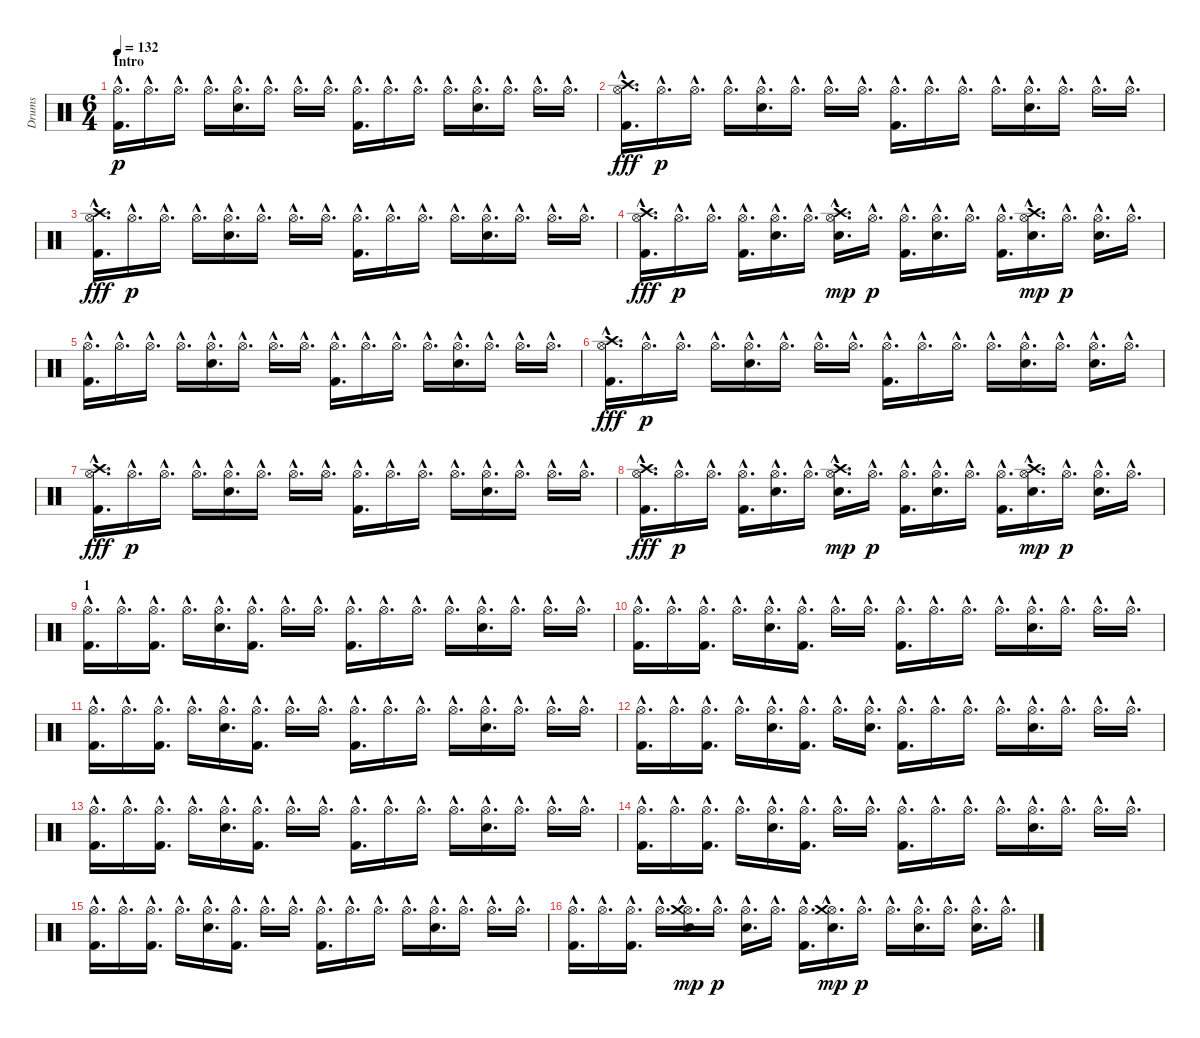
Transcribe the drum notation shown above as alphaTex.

\track ("Drums" "Drums") {instrument percussion}
\staff {score}
\articulation defaults
\ts (6 4)
\section ("" "Intro")
\tempo 132
\clef neutral
\ks c
("Kick (hit) 2"{hac} "Hi-Hat (open)"{hac}).16{d dy p} "Hi-Hat (open)"{hac}.16{d} "Hi-Hat (open)"{hac}.16{d} "Hi-Hat (open)"{hac}.16{d} ("Electric Snare (hit)"{hac} "Hi-Hat (open)"{hac}).16{d} "Hi-Hat (open)"{hac}.16{d} "Hi-Hat (open)"{hac}.16{d} "Hi-Hat (open)"{hac}.16{d} ("Kick (hit) 2"{hac} "Hi-Hat (open)"{hac}).16{d} "Hi-Hat (open)"{hac}.16{d} "Hi-Hat (open)"{hac}.16{d} "Hi-Hat (open)"{hac}.16{d} ("Electric Snare (hit)"{hac} "Hi-Hat (open)"{hac}).16{d} "Hi-Hat (open)"{hac}.16{d} "Hi-Hat (open)"{hac}.16{d} "Hi-Hat (open)"{hac}.16{d} |
("Crash high (hit)"{hac} "Hi-Hat (open)"{hac} "Kick (hit) 2"{hac}).16{d dy fff} "Hi-Hat (open)"{hac}.16{d dy p} "Hi-Hat (open)"{hac}.16{d} "Hi-Hat (open)"{hac}.16{d} ("Electric Snare (hit)"{hac} "Hi-Hat (open)"{hac}).16{d} "Hi-Hat (open)"{hac}.16{d} "Hi-Hat (open)"{hac}.16{d} "Hi-Hat (open)"{hac}.16{d} ("Kick (hit) 2"{hac} "Hi-Hat (open)"{hac}).16{d} "Hi-Hat (open)"{hac}.16{d} "Hi-Hat (open)"{hac}.16{d} "Hi-Hat (open)"{hac}.16{d} ("Electric Snare (hit)"{hac} "Hi-Hat (open)"{hac}).16{d} "Hi-Hat (open)"{hac}.16{d} "Hi-Hat (open)"{hac}.16{d} "Hi-Hat (open)"{hac}.16{d} |
("Crash high (hit)"{hac} "Hi-Hat (open)"{hac} "Kick (hit) 2"{hac}).16{d dy fff} "Hi-Hat (open)"{hac}.16{d dy p} "Hi-Hat (open)"{hac}.16{d} "Hi-Hat (open)"{hac}.16{d} ("Electric Snare (hit)"{hac} "Hi-Hat (open)"{hac}).16{d} "Hi-Hat (open)"{hac}.16{d} "Hi-Hat (open)"{hac}.16{d} "Hi-Hat (open)"{hac}.16{d} ("Kick (hit) 2"{hac} "Hi-Hat (open)"{hac}).16{d} "Hi-Hat (open)"{hac}.16{d} "Hi-Hat (open)"{hac}.16{d} "Hi-Hat (open)"{hac}.16{d} ("Electric Snare (hit)"{hac} "Hi-Hat (open)"{hac}).16{d} "Hi-Hat (open)"{hac}.16{d} "Hi-Hat (open)"{hac}.16{d} "Hi-Hat (open)"{hac}.16{d} |
("Crash high (hit)"{hac} "Hi-Hat (open)"{hac} "Kick (hit) 2"{hac}).16{d dy fff} "Hi-Hat (open)"{hac}.16{d dy p} "Hi-Hat (open)"{hac}.16{d} ("Kick (hit) 2"{hac} "Hi-Hat (open)"{hac}).16{d} ("Electric Snare (hit)"{hac} "Hi-Hat (open)"{hac}).16{d} "Hi-Hat (open)"{hac}.16{d} ("Electric Snare (hit)"{hac} "Hi-Hat (open)"{hac} "Crash high (hit)"{hac}).16{d dy mp} "Hi-Hat (open)"{hac}.16{d dy p} ("Kick (hit) 2"{hac} "Hi-Hat (open)"{hac}).16{d} ("Electric Snare (hit)"{hac} "Hi-Hat (open)"{hac}).16{d} "Hi-Hat (open)"{hac}.16{d} ("Kick (hit) 2"{hac} "Hi-Hat (open)"{hac}).16{d} ("Electric Snare (hit)"{hac} "Hi-Hat (open)"{hac} "Crash high (hit)"{hac}).16{d dy mp} "Hi-Hat (open)"{hac}.16{d dy p} ("Electric Snare (hit)"{hac} "Hi-Hat (open)"{hac}).16{d} "Hi-Hat (open)"{hac}.16{d} |
("Kick (hit) 2"{hac} "Hi-Hat (open)"{hac}).16{d} "Hi-Hat (open)"{hac}.16{d} "Hi-Hat (open)"{hac}.16{d} "Hi-Hat (open)"{hac}.16{d} ("Electric Snare (hit)"{hac} "Hi-Hat (open)"{hac}).16{d} "Hi-Hat (open)"{hac}.16{d} "Hi-Hat (open)"{hac}.16{d} "Hi-Hat (open)"{hac}.16{d} ("Kick (hit) 2"{hac} "Hi-Hat (open)"{hac}).16{d} "Hi-Hat (open)"{hac}.16{d} "Hi-Hat (open)"{hac}.16{d} "Hi-Hat (open)"{hac}.16{d} ("Electric Snare (hit)"{hac} "Hi-Hat (open)"{hac}).16{d} "Hi-Hat (open)"{hac}.16{d} "Hi-Hat (open)"{hac}.16{d} "Hi-Hat (open)"{hac}.16{d} |
("Crash high (hit)"{hac} "Hi-Hat (open)"{hac} "Kick (hit) 2"{hac}).16{d dy fff} "Hi-Hat (open)"{hac}.16{d dy p} "Hi-Hat (open)"{hac}.16{d} "Hi-Hat (open)"{hac}.16{d} ("Electric Snare (hit)"{hac} "Hi-Hat (open)"{hac}).16{d} "Hi-Hat (open)"{hac}.16{d} "Hi-Hat (open)"{hac}.16{d} "Hi-Hat (open)"{hac}.16{d} ("Kick (hit) 2"{hac} "Hi-Hat (open)"{hac}).16{d} "Hi-Hat (open)"{hac}.16{d} "Hi-Hat (open)"{hac}.16{d} "Hi-Hat (open)"{hac}.16{d} ("Electric Snare (hit)"{hac} "Hi-Hat (open)"{hac}).16{d} "Hi-Hat (open)"{hac}.16{d} ("Electric Snare (hit)"{hac} "Hi-Hat (open)"{hac}).16{d} "Hi-Hat (open)"{hac}.16{d} |
("Crash high (hit)"{hac} "Hi-Hat (open)"{hac} "Kick (hit) 2"{hac}).16{d dy fff} "Hi-Hat (open)"{hac}.16{d dy p} "Hi-Hat (open)"{hac}.16{d} "Hi-Hat (open)"{hac}.16{d} ("Electric Snare (hit)"{hac} "Hi-Hat (open)"{hac}).16{d} "Hi-Hat (open)"{hac}.16{d} "Hi-Hat (open)"{hac}.16{d} "Hi-Hat (open)"{hac}.16{d} ("Kick (hit) 2"{hac} "Hi-Hat (open)"{hac}).16{d} "Hi-Hat (open)"{hac}.16{d} "Hi-Hat (open)"{hac}.16{d} "Hi-Hat (open)"{hac}.16{d} ("Electric Snare (hit)"{hac} "Hi-Hat (open)"{hac}).16{d} "Hi-Hat (open)"{hac}.16{d} "Hi-Hat (open)"{hac}.16{d} "Hi-Hat (open)"{hac}.16{d} |
("Crash high (hit)"{hac} "Hi-Hat (open)"{hac} "Kick (hit) 2"{hac}).16{d dy fff} "Hi-Hat (open)"{hac}.16{d dy p} "Hi-Hat (open)"{hac}.16{d} ("Kick (hit) 2"{hac} "Hi-Hat (open)"{hac}).16{d} ("Electric Snare (hit)"{hac} "Hi-Hat (open)"{hac}).16{d} "Hi-Hat (open)"{hac}.16{d} ("Electric Snare (hit)"{hac} "Hi-Hat (open)"{hac} "Crash high (hit)"{hac}).16{d dy mp} "Hi-Hat (open)"{hac}.16{d dy p} ("Kick (hit) 2"{hac} "Hi-Hat (open)"{hac}).16{d} ("Electric Snare (hit)"{hac} "Hi-Hat (open)"{hac}).16{d} "Hi-Hat (open)"{hac}.16{d} ("Kick (hit) 2"{hac} "Hi-Hat (open)"{hac}).16{d} ("Electric Snare (hit)"{hac} "Hi-Hat (open)"{hac} "Crash high (hit)"{hac}).16{d dy mp} "Hi-Hat (open)"{hac}.16{d dy p} ("Electric Snare (hit)"{hac} "Hi-Hat (open)"{hac}).16{d} "Hi-Hat (open)"{hac}.16{d} |
\section ("" "1")
("Hi-Hat (open)"{hac} "Kick (hit) 2"{hac}).16{d} "Hi-Hat (open)"{hac}.16{d} ("Hi-Hat (open)"{hac} "Kick (hit) 2"{hac}).16{d} "Hi-Hat (open)"{hac}.16{d} ("Hi-Hat (open)"{hac} "Electric Snare (hit)"{hac}).16{d} ("Hi-Hat (open)"{hac} "Kick (hit) 2"{hac}).16{d} "Hi-Hat (open)"{hac}.16{d} "Hi-Hat (open)"{hac}.16{d} ("Hi-Hat (open)"{hac} "Kick (hit) 2"{hac}).16{d} "Hi-Hat (open)"{hac}.16{d} "Hi-Hat (open)"{hac}.16{d} "Hi-Hat (open)"{hac}.16{d} ("Hi-Hat (open)"{hac} "Electric Snare (hit)"{hac}).16{d} "Hi-Hat (open)"{hac}.16{d} "Hi-Hat (open)"{hac}.16{d} "Hi-Hat (open)"{hac}.16{d} |
("Hi-Hat (open)"{hac} "Kick (hit) 2"{hac}).16{d} "Hi-Hat (open)"{hac}.16{d} ("Hi-Hat (open)"{hac} "Kick (hit) 2"{hac}).16{d} "Hi-Hat (open)"{hac}.16{d} ("Hi-Hat (open)"{hac} "Electric Snare (hit)"{hac}).16{d} ("Hi-Hat (open)"{hac} "Kick (hit) 2"{hac}).16{d} "Hi-Hat (open)"{hac}.16{d} "Hi-Hat (open)"{hac}.16{d} ("Hi-Hat (open)"{hac} "Kick (hit) 2"{hac}).16{d} "Hi-Hat (open)"{hac}.16{d} "Hi-Hat (open)"{hac}.16{d} "Hi-Hat (open)"{hac}.16{d} ("Hi-Hat (open)"{hac} "Electric Snare (hit)"{hac}).16{d} "Hi-Hat (open)"{hac}.16{d} "Hi-Hat (open)"{hac}.16{d} "Hi-Hat (open)"{hac}.16{d} |
("Hi-Hat (open)"{hac} "Kick (hit) 2"{hac}).16{d} "Hi-Hat (open)"{hac}.16{d} ("Hi-Hat (open)"{hac} "Kick (hit) 2"{hac}).16{d} "Hi-Hat (open)"{hac}.16{d} ("Hi-Hat (open)"{hac} "Electric Snare (hit)"{hac}).16{d} ("Hi-Hat (open)"{hac} "Kick (hit) 2"{hac}).16{d} "Hi-Hat (open)"{hac}.16{d} "Hi-Hat (open)"{hac}.16{d} ("Hi-Hat (open)"{hac} "Kick (hit) 2"{hac}).16{d} "Hi-Hat (open)"{hac}.16{d} "Hi-Hat (open)"{hac}.16{d} "Hi-Hat (open)"{hac}.16{d} ("Hi-Hat (open)"{hac} "Electric Snare (hit)"{hac}).16{d} "Hi-Hat (open)"{hac}.16{d} "Hi-Hat (open)"{hac}.16{d} "Hi-Hat (open)"{hac}.16{d} |
("Hi-Hat (open)"{hac} "Kick (hit) 2"{hac}).16{d} "Hi-Hat (open)"{hac}.16{d} ("Hi-Hat (open)"{hac} "Kick (hit) 2"{hac}).16{d} "Hi-Hat (open)"{hac}.16{d} ("Hi-Hat (open)"{hac} "Electric Snare (hit)"{hac}).16{d} ("Hi-Hat (open)"{hac} "Kick (hit) 2"{hac}).16{d} "Hi-Hat (open)"{hac}.16{d} ("Hi-Hat (open)"{hac} "Electric Snare (hit)"{hac}).16{d} ("Hi-Hat (open)"{hac} "Kick (hit) 2"{hac}).16{d} "Hi-Hat (open)"{hac}.16{d} "Hi-Hat (open)"{hac}.16{d} "Hi-Hat (open)"{hac}.16{d} ("Hi-Hat (open)"{hac} "Electric Snare (hit)"{hac}).16{d} "Hi-Hat (open)"{hac}.16{d} "Hi-Hat (open)"{hac}.16{d} "Hi-Hat (open)"{hac}.16{d} |
("Hi-Hat (open)"{hac} "Kick (hit) 2"{hac}).16{d} "Hi-Hat (open)"{hac}.16{d} ("Hi-Hat (open)"{hac} "Kick (hit) 2"{hac}).16{d} "Hi-Hat (open)"{hac}.16{d} ("Hi-Hat (open)"{hac} "Electric Snare (hit)"{hac}).16{d} ("Hi-Hat (open)"{hac} "Kick (hit) 2"{hac}).16{d} "Hi-Hat (open)"{hac}.16{d} "Hi-Hat (open)"{hac}.16{d} ("Hi-Hat (open)"{hac} "Kick (hit) 2"{hac}).16{d} "Hi-Hat (open)"{hac}.16{d} "Hi-Hat (open)"{hac}.16{d} "Hi-Hat (open)"{hac}.16{d} ("Hi-Hat (open)"{hac} "Electric Snare (hit)"{hac}).16{d} "Hi-Hat (open)"{hac}.16{d} "Hi-Hat (open)"{hac}.16{d} "Hi-Hat (open)"{hac}.16{d} |
("Hi-Hat (open)"{hac} "Kick (hit) 2"{hac}).16{d} "Hi-Hat (open)"{hac}.16{d} ("Hi-Hat (open)"{hac} "Kick (hit) 2"{hac}).16{d} "Hi-Hat (open)"{hac}.16{d} ("Hi-Hat (open)"{hac} "Electric Snare (hit)"{hac}).16{d} ("Hi-Hat (open)"{hac} "Kick (hit) 2"{hac}).16{d} "Hi-Hat (open)"{hac}.16{d} "Hi-Hat (open)"{hac}.16{d} ("Hi-Hat (open)"{hac} "Kick (hit) 2"{hac}).16{d} "Hi-Hat (open)"{hac}.16{d} "Hi-Hat (open)"{hac}.16{d} "Hi-Hat (open)"{hac}.16{d} ("Hi-Hat (open)"{hac} "Electric Snare (hit)"{hac}).16{d} "Hi-Hat (open)"{hac}.16{d} "Hi-Hat (open)"{hac}.16{d} "Hi-Hat (open)"{hac}.16{d} |
("Hi-Hat (open)"{hac} "Kick (hit) 2"{hac}).16{d} "Hi-Hat (open)"{hac}.16{d} ("Hi-Hat (open)"{hac} "Kick (hit) 2"{hac}).16{d} "Hi-Hat (open)"{hac}.16{d} ("Hi-Hat (open)"{hac} "Electric Snare (hit)"{hac}).16{d} ("Hi-Hat (open)"{hac} "Kick (hit) 2"{hac}).16{d} "Hi-Hat (open)"{hac}.16{d} "Hi-Hat (open)"{hac}.16{d} ("Hi-Hat (open)"{hac} "Kick (hit) 2"{hac}).16{d} "Hi-Hat (open)"{hac}.16{d} "Hi-Hat (open)"{hac}.16{d} "Hi-Hat (open)"{hac}.16{d} ("Hi-Hat (open)"{hac} "Electric Snare (hit)"{hac}).16{d} "Hi-Hat (open)"{hac}.16{d} "Hi-Hat (open)"{hac}.16{d} "Hi-Hat (open)"{hac}.16{d} |
("Hi-Hat (open)"{hac} "Kick (hit) 2"{hac}).16{d} "Hi-Hat (open)"{hac}.16{d} ("Hi-Hat (open)"{hac} "Kick (hit) 2"{hac}).16{d} "Hi-Hat (open)"{hac}.16{d} ("Hi-Hat (open)"{hac} "Electric Snare (hit)"{hac} "Crash medium (hit)"{hac}).16{d dy mp} "Hi-Hat (open)"{hac}.16{d dy p} ("Hi-Hat (open)"{hac} "Electric Snare (hit)"{hac}).16{d} "Hi-Hat (open)"{hac}.16{d} ("Hi-Hat (open)"{hac} "Kick (hit) 2"{hac}).16{d} ("Hi-Hat (open)"{hac} "Electric Snare (hit)"{hac} "Crash medium (hit)"{hac}).16{d dy mp} "Hi-Hat (open)"{hac}.16{d dy p} "Hi-Hat (open)"{hac}.16{d} ("Hi-Hat (open)"{hac} "Electric Snare (hit)"{hac}).16{d} "Hi-Hat (open)"{hac}.16{d} ("Hi-Hat (open)"{hac} "Electric Snare (hit)"{hac}).16{d} "Hi-Hat (open)"{hac}.16{d}
